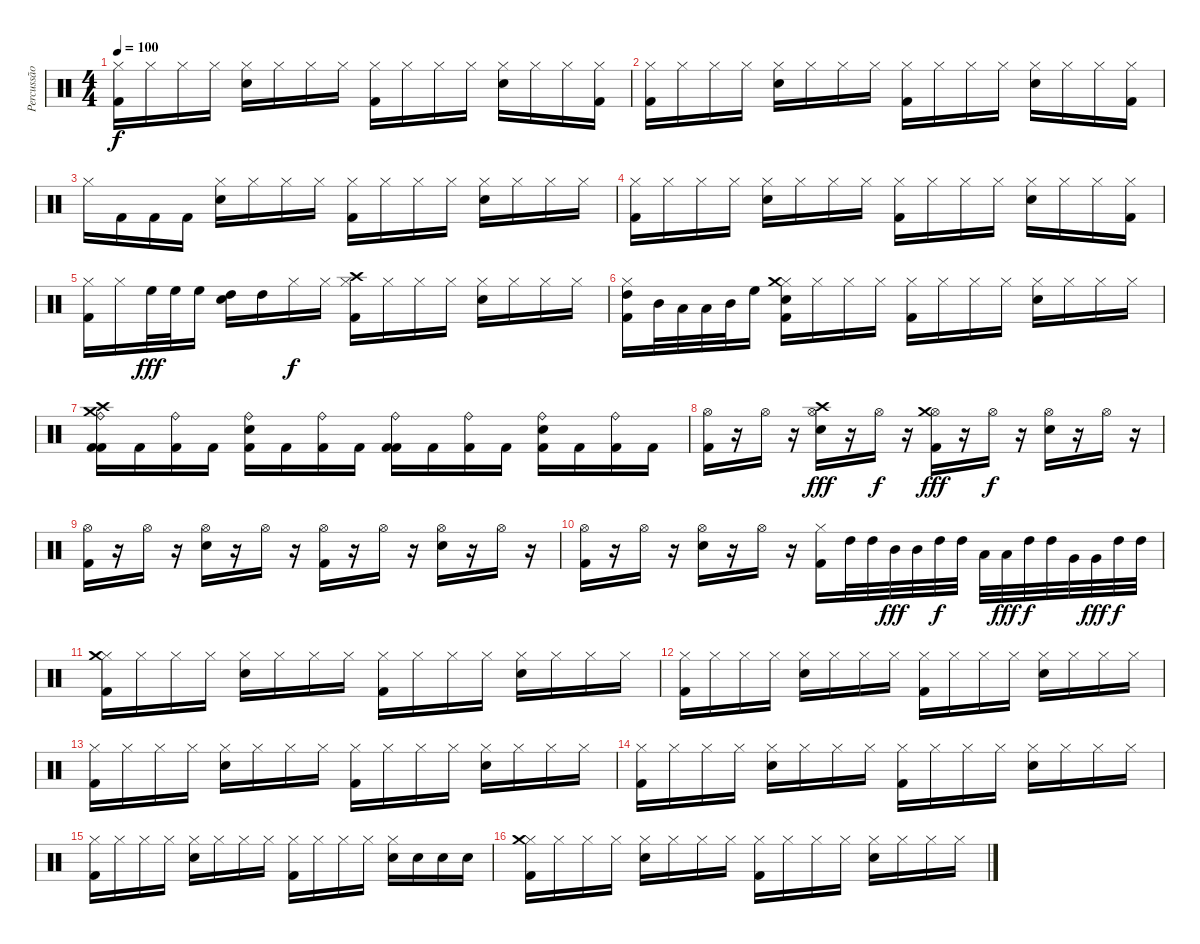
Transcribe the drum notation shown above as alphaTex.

\track ("Percussão" "Percussão") {instrument percussion}
\staff {score}
\articulation defaults
\ts (4 4)
\tempo 100
\clef neutral
\ks c
("Hi-Hat (closed)" "Kick (hit) 2").16{dy f} "Hi-Hat (closed)".16 "Hi-Hat (closed)".16 "Hi-Hat (closed)".16 ("Hi-Hat (closed)" "Snare (hit) 2").16 "Hi-Hat (closed)".16 "Hi-Hat (closed)".16 "Hi-Hat (closed)".16 ("Hi-Hat (closed)" "Kick (hit) 2").16 "Hi-Hat (closed)".16 "Hi-Hat (closed)".16 "Hi-Hat (closed)".16 ("Hi-Hat (closed)" "Snare (hit) 2").16 "Hi-Hat (closed)".16 "Hi-Hat (closed)".16 ("Hi-Hat (closed)" "Kick (hit) 2").16 |
("Hi-Hat (closed)" "Kick (hit) 2").16 "Hi-Hat (closed)".16 "Hi-Hat (closed)".16 "Hi-Hat (closed)".16 ("Hi-Hat (closed)" "Snare (hit) 2").16 "Hi-Hat (closed)".16 "Hi-Hat (closed)".16 "Hi-Hat (closed)".16 ("Hi-Hat (closed)" "Kick (hit) 2").16 "Hi-Hat (closed)".16 "Hi-Hat (closed)".16 "Hi-Hat (closed)".16 ("Hi-Hat (closed)" "Snare (hit) 2").16 "Hi-Hat (closed)".16 "Hi-Hat (closed)".16 ("Hi-Hat (closed)" "Kick (hit) 2").16 |
"Hi-Hat (closed)".16 "Kick (hit) 2".16 "Kick (hit) 2".16 "Kick (hit) 2".16 ("Hi-Hat (closed)" "Snare (hit) 2").16 "Hi-Hat (closed)".16 "Hi-Hat (closed)".16 "Hi-Hat (closed)".16 ("Hi-Hat (closed)" "Kick (hit) 2").16 "Hi-Hat (closed)".16 "Hi-Hat (closed)".16 "Hi-Hat (closed)".16 ("Hi-Hat (closed)" "Snare (hit) 2").16 "Hi-Hat (closed)".16 "Hi-Hat (closed)".16 "Hi-Hat (closed)".16 |
("Hi-Hat (closed)" "Kick (hit) 2").16 "Hi-Hat (closed)".16 "Hi-Hat (closed)".16 "Hi-Hat (closed)".16 ("Hi-Hat (closed)" "Snare (hit) 2").16 "Hi-Hat (closed)".16 "Hi-Hat (closed)".16 "Hi-Hat (closed)".16 ("Hi-Hat (closed)" "Kick (hit) 2").16 "Hi-Hat (closed)".16 "Hi-Hat (closed)".16 "Hi-Hat (closed)".16 ("Hi-Hat (closed)" "Snare (hit) 2").16 "Hi-Hat (closed)".16 "Hi-Hat (closed)".16 ("Hi-Hat (closed)" "Kick (hit) 2").16 |
("Hi-Hat (closed)" "Kick (hit) 2").16 "Hi-Hat (closed)".16 "High Floor Tom (hit)".32{dy fff} "High Floor Tom (hit)".32 "High Floor Tom (hit)".16 ("Snare (hit) 2" "High Tom (hit)").16 "High Tom (hit)".16 "Hi-Hat (closed)".16{dy f} "Hi-Hat (closed)".16 ("Hi-Hat (closed)" "Kick (hit) 2" "Crash high (hit)").16 "Hi-Hat (closed)".16 "Hi-Hat (closed)".16 "Hi-Hat (closed)".16 ("Hi-Hat (closed)" "Snare (hit) 2").16 "Hi-Hat (closed)".16 "Hi-Hat (closed)".16 "Hi-Hat (closed)".16 |
("Hi-Hat (closed)" "Kick (hit) 2" "High Tom (hit)").16 "Mid Tom (hit)".32 "Low Tom (hit)".32 "Low Tom (hit)".32 "Mid Tom (hit)".32 "High Floor Tom (hit)".16 ("Hi-Hat (closed)" "Snare (hit) 2" "Crash medium (hit)" "Kick (hit) 2").16 "Hi-Hat (closed)".16 "Hi-Hat (closed)".16 "Hi-Hat (closed)".16 ("Hi-Hat (closed)" "Kick (hit) 2").16 "Hi-Hat (closed)".16 "Hi-Hat (closed)".16 "Hi-Hat (closed)".16 ("Hi-Hat (closed)" "Snare (hit) 2").16 "Hi-Hat (closed)".16 "Hi-Hat (closed)".16 "Hi-Hat (closed)".16 |
("Ride (bell)" "Kick (hit) 2" "Kick (hit) 2" "Crash high (hit)" "Crash medium (hit)").16 "Kick (hit) 2".16 ("Ride (bell)" "Kick (hit) 2").16 "Kick (hit) 2".16 ("Ride (bell)" "Snare (hit) 2" "Kick (hit) 2").16 "Kick (hit) 2".16 ("Ride (bell)" "Kick (hit) 2").16 "Kick (hit) 2".16 ("Ride (bell)" "Kick (hit) 2" "Kick (hit) 2").16 "Kick (hit) 2".16 ("Ride (bell)" "Kick (hit) 2").16 "Kick (hit) 2".16 ("Ride (bell)" "Snare (hit) 2" "Kick (hit) 2").16 "Kick (hit) 2".16 ("Ride (bell)" "Kick (hit) 2").16 "Kick (hit) 2".16 |
("Hi-Hat (open)" "Kick (hit) 2").16 r.16 "Hi-Hat (open)".16 r.16 ("Hi-Hat (open)" "Snare (hit) 2" "Crash high (hit)").16{dy fff} r.16 "Hi-Hat (open)".16{dy f} r.16 ("Hi-Hat (open)" "Kick (hit) 2" "Crash medium (hit)").16{dy fff} r.16 "Hi-Hat (open)".16{dy f} r.16 ("Hi-Hat (open)" "Snare (hit) 2").16 r.16 "Hi-Hat (open)".16 r.16 |
("Hi-Hat (open)" "Kick (hit) 2").16 r.16 "Hi-Hat (open)".16 r.16 ("Hi-Hat (open)" "Snare (hit) 2").16 r.16 "Hi-Hat (open)".16 r.16 ("Hi-Hat (open)" "Kick (hit) 2").16 r.16 "Hi-Hat (open)".16 r.16 ("Hi-Hat (open)" "Snare (hit) 2").16 r.16 "Hi-Hat (open)".16 r.16 |
("Hi-Hat (open)" "Kick (hit) 2").16 r.16 "Hi-Hat (open)".16 r.16 ("Hi-Hat (open)" "Snare (hit) 2").16 r.16 "Hi-Hat (open)".16 r.16 ("Hi-Hat (closed)" "Kick (hit) 2").16 "High Tom (hit)".32 "High Tom (hit)".32 "Mid Tom (hit)".32{dy fff} "Mid Tom (hit)".32 "High Tom (hit)".32{dy f} "High Tom (hit)".32 "Low Tom (hit)".32 "Low Tom (hit)".32{dy fff} "High Tom (hit)".32{dy f} "High Tom (hit)".32 "Very Low Tom (hit)".32 "Very Low Tom (hit)".32{dy fff} "High Tom (hit)".32{dy f} "High Tom (hit)".32 |
("Hi-Hat (closed)" "Kick (hit) 2" "Crash medium (hit)").16 "Hi-Hat (closed)".16 "Hi-Hat (closed)".16 "Hi-Hat (closed)".16 ("Hi-Hat (closed)" "Snare (hit) 2").16 "Hi-Hat (closed)".16 "Hi-Hat (closed)".16 "Hi-Hat (closed)".16 ("Hi-Hat (closed)" "Kick (hit) 2").16 "Hi-Hat (closed)".16 "Hi-Hat (closed)".16 "Hi-Hat (closed)".16 ("Hi-Hat (closed)" "Snare (hit) 2").16 "Hi-Hat (closed)".16 "Hi-Hat (closed)".16 "Hi-Hat (closed)".16 |
("Hi-Hat (closed)" "Kick (hit) 2").16 "Hi-Hat (closed)".16 "Hi-Hat (closed)".16 "Hi-Hat (closed)".16 ("Hi-Hat (closed)" "Snare (hit) 2").16 "Hi-Hat (closed)".16 "Hi-Hat (closed)".16 "Hi-Hat (closed)".16 ("Hi-Hat (closed)" "Kick (hit) 2").16 "Hi-Hat (closed)".16 "Hi-Hat (closed)".16 "Hi-Hat (closed)".16 ("Hi-Hat (closed)" "Snare (hit) 2").16 "Hi-Hat (closed)".16 "Hi-Hat (closed)".16 "Hi-Hat (closed)".16 |
("Hi-Hat (closed)" "Kick (hit) 2").16 "Hi-Hat (closed)".16 "Hi-Hat (closed)".16 "Hi-Hat (closed)".16 ("Hi-Hat (closed)" "Snare (hit) 2").16 "Hi-Hat (closed)".16 "Hi-Hat (closed)".16 "Hi-Hat (closed)".16 ("Hi-Hat (closed)" "Kick (hit) 2").16 "Hi-Hat (closed)".16 "Hi-Hat (closed)".16 "Hi-Hat (closed)".16 ("Hi-Hat (closed)" "Snare (hit) 2").16 "Hi-Hat (closed)".16 "Hi-Hat (closed)".16 "Hi-Hat (closed)".16 |
("Hi-Hat (closed)" "Kick (hit) 2").16 "Hi-Hat (closed)".16 "Hi-Hat (closed)".16 "Hi-Hat (closed)".16 ("Hi-Hat (closed)" "Snare (hit) 2").16 "Hi-Hat (closed)".16 "Hi-Hat (closed)".16 "Hi-Hat (closed)".16 ("Hi-Hat (closed)" "Kick (hit) 2").16 "Hi-Hat (closed)".16 "Hi-Hat (closed)".16 "Hi-Hat (closed)".16 ("Hi-Hat (closed)" "Snare (hit) 2").16 "Hi-Hat (closed)".16 "Hi-Hat (closed)".16 "Hi-Hat (closed)".16 |
("Hi-Hat (closed)" "Kick (hit) 2").16 "Hi-Hat (closed)".16 "Hi-Hat (closed)".16 "Hi-Hat (closed)".16 ("Hi-Hat (closed)" "Snare (hit) 2").16 "Hi-Hat (closed)".16 "Hi-Hat (closed)".16 "Hi-Hat (closed)".16 ("Hi-Hat (closed)" "Kick (hit) 2").16 "Hi-Hat (closed)".16 "Hi-Hat (closed)".16 "Hi-Hat (closed)".16 ("Hi-Hat (closed)" "Snare (hit) 2").16 "Snare (hit) 2".16 "Snare (hit) 2".16 "Snare (hit) 2".16 |
("Hi-Hat (closed)" "Kick (hit) 2" "Crash medium (hit)").16 "Hi-Hat (closed)".16 "Hi-Hat (closed)".16 "Hi-Hat (closed)".16 ("Hi-Hat (closed)" "Snare (hit) 2").16 "Hi-Hat (closed)".16 "Hi-Hat (closed)".16 "Hi-Hat (closed)".16 ("Hi-Hat (closed)" "Kick (hit) 2").16 "Hi-Hat (closed)".16 "Hi-Hat (closed)".16 "Hi-Hat (closed)".16 ("Hi-Hat (closed)" "Snare (hit) 2").16 "Hi-Hat (closed)".16 "Hi-Hat (closed)".16 "Hi-Hat (closed)".16
